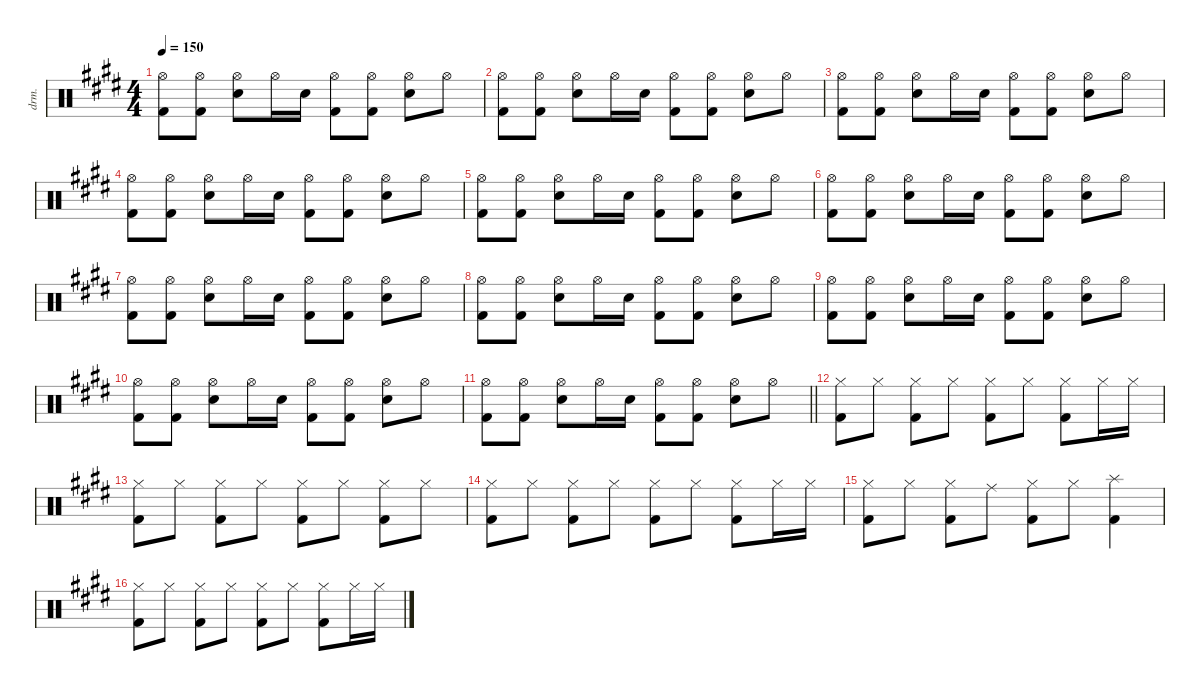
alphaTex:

\defaultSystemsLayout 4
\hideDynamics
\bracketExtendMode nobrackets
\track (" (Drums)" "drm.") {instrument percussion}
\staff {score}
\articulation defaults
\ts (4 4)
\tempo 150
\clef neutral
\ks c#minor
("Hi-Hat (open)"{acc forcenatural} "Kick (hit) 2"{acc forcenatural}).8{dy f} ("Hi-Hat (open)"{acc forcenatural} "Kick (hit) 2"{acc forcenatural}).8 ("Hi-Hat (open)"{acc forcenatural} "Snare (hit) 2"{acc forcenatural}).8 "Hi-Hat (open)"{acc forcenatural}.16 "Snare (hit) 2"{acc forcenatural}.16{dy mf} ("Hi-Hat (open)"{acc forcenatural} "Kick (hit) 2"{acc forcenatural}).8{dy f} ("Hi-Hat (open)"{acc forcenatural} "Kick (hit) 2"{acc forcenatural}).8 ("Hi-Hat (open)"{acc forcenatural} "Snare (hit) 2"{acc forcenatural}).8 "Hi-Hat (open)"{acc forcenatural}.8 |
("Hi-Hat (open)"{acc forcenatural} "Kick (hit) 2"{acc forcenatural}).8 ("Hi-Hat (open)"{acc forcenatural} "Kick (hit) 2"{acc forcenatural}).8 ("Hi-Hat (open)"{acc forcenatural} "Snare (hit) 2"{acc forcenatural}).8 "Hi-Hat (open)"{acc forcenatural}.16 "Snare (hit) 2"{acc forcenatural}.16{dy mf} ("Hi-Hat (open)"{acc forcenatural} "Kick (hit) 2"{acc forcenatural}).8{dy f} ("Hi-Hat (open)"{acc forcenatural} "Kick (hit) 2"{acc forcenatural}).8 ("Hi-Hat (open)"{acc forcenatural} "Snare (hit) 2"{acc forcenatural}).8 "Hi-Hat (open)"{acc forcenatural}.8 |
("Hi-Hat (open)"{acc forcenatural} "Kick (hit) 2"{acc forcenatural}).8 ("Hi-Hat (open)"{acc forcenatural} "Kick (hit) 2"{acc forcenatural}).8 ("Hi-Hat (open)"{acc forcenatural} "Snare (hit) 2"{acc forcenatural}).8 "Hi-Hat (open)"{acc forcenatural}.16 "Snare (hit) 2"{acc forcenatural}.16{dy mf} ("Hi-Hat (open)"{acc forcenatural} "Kick (hit) 2"{acc forcenatural}).8{dy f} ("Hi-Hat (open)"{acc forcenatural} "Kick (hit) 2"{acc forcenatural}).8 ("Hi-Hat (open)"{acc forcenatural} "Snare (hit) 2"{acc forcenatural}).8 "Hi-Hat (open)"{acc forcenatural}.8 |
("Hi-Hat (open)"{acc forcenatural} "Kick (hit) 2"{acc forcenatural}).8 ("Hi-Hat (open)"{acc forcenatural} "Kick (hit) 2"{acc forcenatural}).8 ("Hi-Hat (open)"{acc forcenatural} "Snare (hit) 2"{acc forcenatural}).8 "Hi-Hat (open)"{acc forcenatural}.16 "Snare (hit) 2"{acc forcenatural}.16{dy mf} ("Hi-Hat (open)"{acc forcenatural} "Kick (hit) 2"{acc forcenatural}).8{dy f} ("Hi-Hat (open)"{acc forcenatural} "Kick (hit) 2"{acc forcenatural}).8 ("Hi-Hat (open)"{acc forcenatural} "Snare (hit) 2"{acc forcenatural}).8 "Hi-Hat (open)"{acc forcenatural}.8 |
("Hi-Hat (open)"{acc forcenatural} "Kick (hit) 2"{acc forcenatural}).8 ("Hi-Hat (open)"{acc forcenatural} "Kick (hit) 2"{acc forcenatural}).8 ("Hi-Hat (open)"{acc forcenatural} "Snare (hit) 2"{acc forcenatural}).8 "Hi-Hat (open)"{acc forcenatural}.16 "Snare (hit) 2"{acc forcenatural}.16{dy mf} ("Hi-Hat (open)"{acc forcenatural} "Kick (hit) 2"{acc forcenatural}).8{dy f} ("Hi-Hat (open)"{acc forcenatural} "Kick (hit) 2"{acc forcenatural}).8 ("Hi-Hat (open)"{acc forcenatural} "Snare (hit) 2"{acc forcenatural}).8 "Hi-Hat (open)"{acc forcenatural}.8 |
("Hi-Hat (open)"{acc forcenatural} "Kick (hit) 2"{acc forcenatural}).8 ("Hi-Hat (open)"{acc forcenatural} "Kick (hit) 2"{acc forcenatural}).8 ("Hi-Hat (open)"{acc forcenatural} "Snare (hit) 2"{acc forcenatural}).8 "Hi-Hat (open)"{acc forcenatural}.16 "Snare (hit) 2"{acc forcenatural}.16{dy mf} ("Hi-Hat (open)"{acc forcenatural} "Kick (hit) 2"{acc forcenatural}).8{dy f} ("Hi-Hat (open)"{acc forcenatural} "Kick (hit) 2"{acc forcenatural}).8 ("Hi-Hat (open)"{acc forcenatural} "Snare (hit) 2"{acc forcenatural}).8 "Hi-Hat (open)"{acc forcenatural}.8 |
("Hi-Hat (open)"{acc forcenatural} "Kick (hit) 2"{acc forcenatural}).8 ("Hi-Hat (open)"{acc forcenatural} "Kick (hit) 2"{acc forcenatural}).8 ("Hi-Hat (open)"{acc forcenatural} "Snare (hit) 2"{acc forcenatural}).8 "Hi-Hat (open)"{acc forcenatural}.16 "Snare (hit) 2"{acc forcenatural}.16{dy mf} ("Hi-Hat (open)"{acc forcenatural} "Kick (hit) 2"{acc forcenatural}).8{dy f} ("Hi-Hat (open)"{acc forcenatural} "Kick (hit) 2"{acc forcenatural}).8 ("Hi-Hat (open)"{acc forcenatural} "Snare (hit) 2"{acc forcenatural}).8 "Hi-Hat (open)"{acc forcenatural}.8 |
("Hi-Hat (open)"{acc forcenatural} "Kick (hit) 2"{acc forcenatural}).8 ("Hi-Hat (open)"{acc forcenatural} "Kick (hit) 2"{acc forcenatural}).8 ("Hi-Hat (open)"{acc forcenatural} "Snare (hit) 2"{acc forcenatural}).8 "Hi-Hat (open)"{acc forcenatural}.16 "Snare (hit) 2"{acc forcenatural}.16{dy mf} ("Hi-Hat (open)"{acc forcenatural} "Kick (hit) 2"{acc forcenatural}).8{dy f} ("Hi-Hat (open)"{acc forcenatural} "Kick (hit) 2"{acc forcenatural}).8 ("Hi-Hat (open)"{acc forcenatural} "Snare (hit) 2"{acc forcenatural}).8 "Hi-Hat (open)"{acc forcenatural}.8 |
("Hi-Hat (open)"{acc forcenatural} "Kick (hit) 2"{acc forcenatural}).8 ("Hi-Hat (open)"{acc forcenatural} "Kick (hit) 2"{acc forcenatural}).8 ("Hi-Hat (open)"{acc forcenatural} "Snare (hit) 2"{acc forcenatural}).8 "Hi-Hat (open)"{acc forcenatural}.16 "Snare (hit) 2"{acc forcenatural}.16{dy mf} ("Hi-Hat (open)"{acc forcenatural} "Kick (hit) 2"{acc forcenatural}).8{dy f} ("Hi-Hat (open)"{acc forcenatural} "Kick (hit) 2"{acc forcenatural}).8 ("Hi-Hat (open)"{acc forcenatural} "Snare (hit) 2"{acc forcenatural}).8 "Hi-Hat (open)"{acc forcenatural}.8 |
("Hi-Hat (open)"{acc forcenatural} "Kick (hit) 2"{acc forcenatural}).8 ("Hi-Hat (open)"{acc forcenatural} "Kick (hit) 2"{acc forcenatural}).8 ("Hi-Hat (open)"{acc forcenatural} "Snare (hit) 2"{acc forcenatural}).8 "Hi-Hat (open)"{acc forcenatural}.16 "Snare (hit) 2"{acc forcenatural}.16{dy mf} ("Hi-Hat (open)"{acc forcenatural} "Kick (hit) 2"{acc forcenatural}).8{dy f} ("Hi-Hat (open)"{acc forcenatural} "Kick (hit) 2"{acc forcenatural}).8 ("Hi-Hat (open)"{acc forcenatural} "Snare (hit) 2"{acc forcenatural}).8 "Hi-Hat (open)"{acc forcenatural}.8 |
\barLineRight lightlight
("Hi-Hat (open)"{acc forcenatural} "Kick (hit) 2"{acc forcenatural}).8 ("Hi-Hat (open)"{acc forcenatural} "Kick (hit) 2"{acc forcenatural}).8 ("Hi-Hat (open)"{acc forcenatural} "Snare (hit) 2"{acc forcenatural}).8 "Hi-Hat (open)"{acc forcenatural}.16 "Snare (hit) 2"{acc forcenatural}.16{dy mf} ("Hi-Hat (open)"{acc forcenatural} "Kick (hit) 2"{acc forcenatural}).8{dy f} ("Hi-Hat (open)"{acc forcenatural} "Kick (hit) 2"{acc forcenatural}).8 ("Hi-Hat (open)"{acc forcenatural} "Snare (hit) 2"{acc forcenatural}).8 "Hi-Hat (open)"{acc forcenatural}.8 |
("Hi-Hat (closed)"{acc forcenatural} "Kick (hit) 2"{acc forcenatural}).8 "Hi-Hat (closed)"{acc forcenatural}.8 ("Hi-Hat (closed)"{acc forcenatural} "Kick (hit) 2"{acc forcenatural}).8 "Hi-Hat (closed)"{acc forcenatural}.8 ("Hi-Hat (closed)"{acc forcenatural} "Kick (hit) 2"{acc forcenatural}).8 "Hi-Hat (closed)"{acc forcenatural}.8 ("Hi-Hat (closed)"{acc forcenatural} "Kick (hit) 2"{acc forcenatural}).8 "Hi-Hat (closed)"{acc forcenatural}.16 "Hi-Hat (closed)"{acc forcenatural}.16 |
("Hi-Hat (closed)"{acc forcenatural} "Kick (hit) 2"{acc forcenatural}).8 "Hi-Hat (closed)"{acc forcenatural}.8 ("Hi-Hat (closed)"{acc forcenatural} "Kick (hit) 2"{acc forcenatural}).8 "Hi-Hat (closed)"{acc forcenatural}.8 ("Hi-Hat (closed)"{acc forcenatural} "Kick (hit) 2"{acc forcenatural}).8 "Hi-Hat (closed)"{acc forcenatural}.8 ("Hi-Hat (closed)"{acc forcenatural} "Kick (hit) 2"{acc forcenatural}).8 "Hi-Hat (closed)"{acc forcenatural}.8 |
("Hi-Hat (closed)"{acc forcenatural} "Kick (hit) 2"{acc forcenatural}).8 "Hi-Hat (closed)"{acc forcenatural}.8 ("Hi-Hat (closed)"{acc forcenatural} "Kick (hit) 2"{acc forcenatural}).8 "Hi-Hat (closed)"{acc forcenatural}.8 ("Hi-Hat (closed)"{acc forcenatural} "Kick (hit) 2"{acc forcenatural}).8 "Hi-Hat (closed)"{acc forcenatural}.8 ("Hi-Hat (closed)"{acc forcenatural} "Kick (hit) 2"{acc forcenatural}).8 "Hi-Hat (closed)"{acc forcenatural}.16 "Hi-Hat (closed)"{acc forcenatural}.16 |
("Hi-Hat (closed)"{acc forcenatural} "Kick (hit) 2"{acc forcenatural}).8 "Hi-Hat (closed)"{acc forcenatural}.8 ("Hi-Hat (closed)"{acc forcenatural} "Kick (hit) 2"{acc forcenatural}).8 "Ride (middle)"{acc forcenatural}.8 ("Hi-Hat (closed)"{acc forcenatural} "Kick (hit) 2"{acc forcenatural}).8 "Hi-Hat (closed)"{acc forcenatural}.8 ("Splash (hit)"{acc forcenatural} "Kick (hit) 2"{acc forcenatural}).4 |
("Hi-Hat (closed)"{acc forcenatural} "Kick (hit) 2"{acc forcenatural}).8 "Hi-Hat (closed)"{acc forcenatural}.8 ("Hi-Hat (closed)"{acc forcenatural} "Kick (hit) 2"{acc forcenatural}).8 "Hi-Hat (closed)"{acc forcenatural}.8 ("Hi-Hat (closed)"{acc forcenatural} "Kick (hit) 2"{acc forcenatural}).8 "Hi-Hat (closed)"{acc forcenatural}.8 ("Hi-Hat (closed)"{acc forcenatural} "Kick (hit) 2"{acc forcenatural}).8 "Hi-Hat (closed)"{acc forcenatural}.16 "Hi-Hat (closed)"{acc forcenatural}.16
